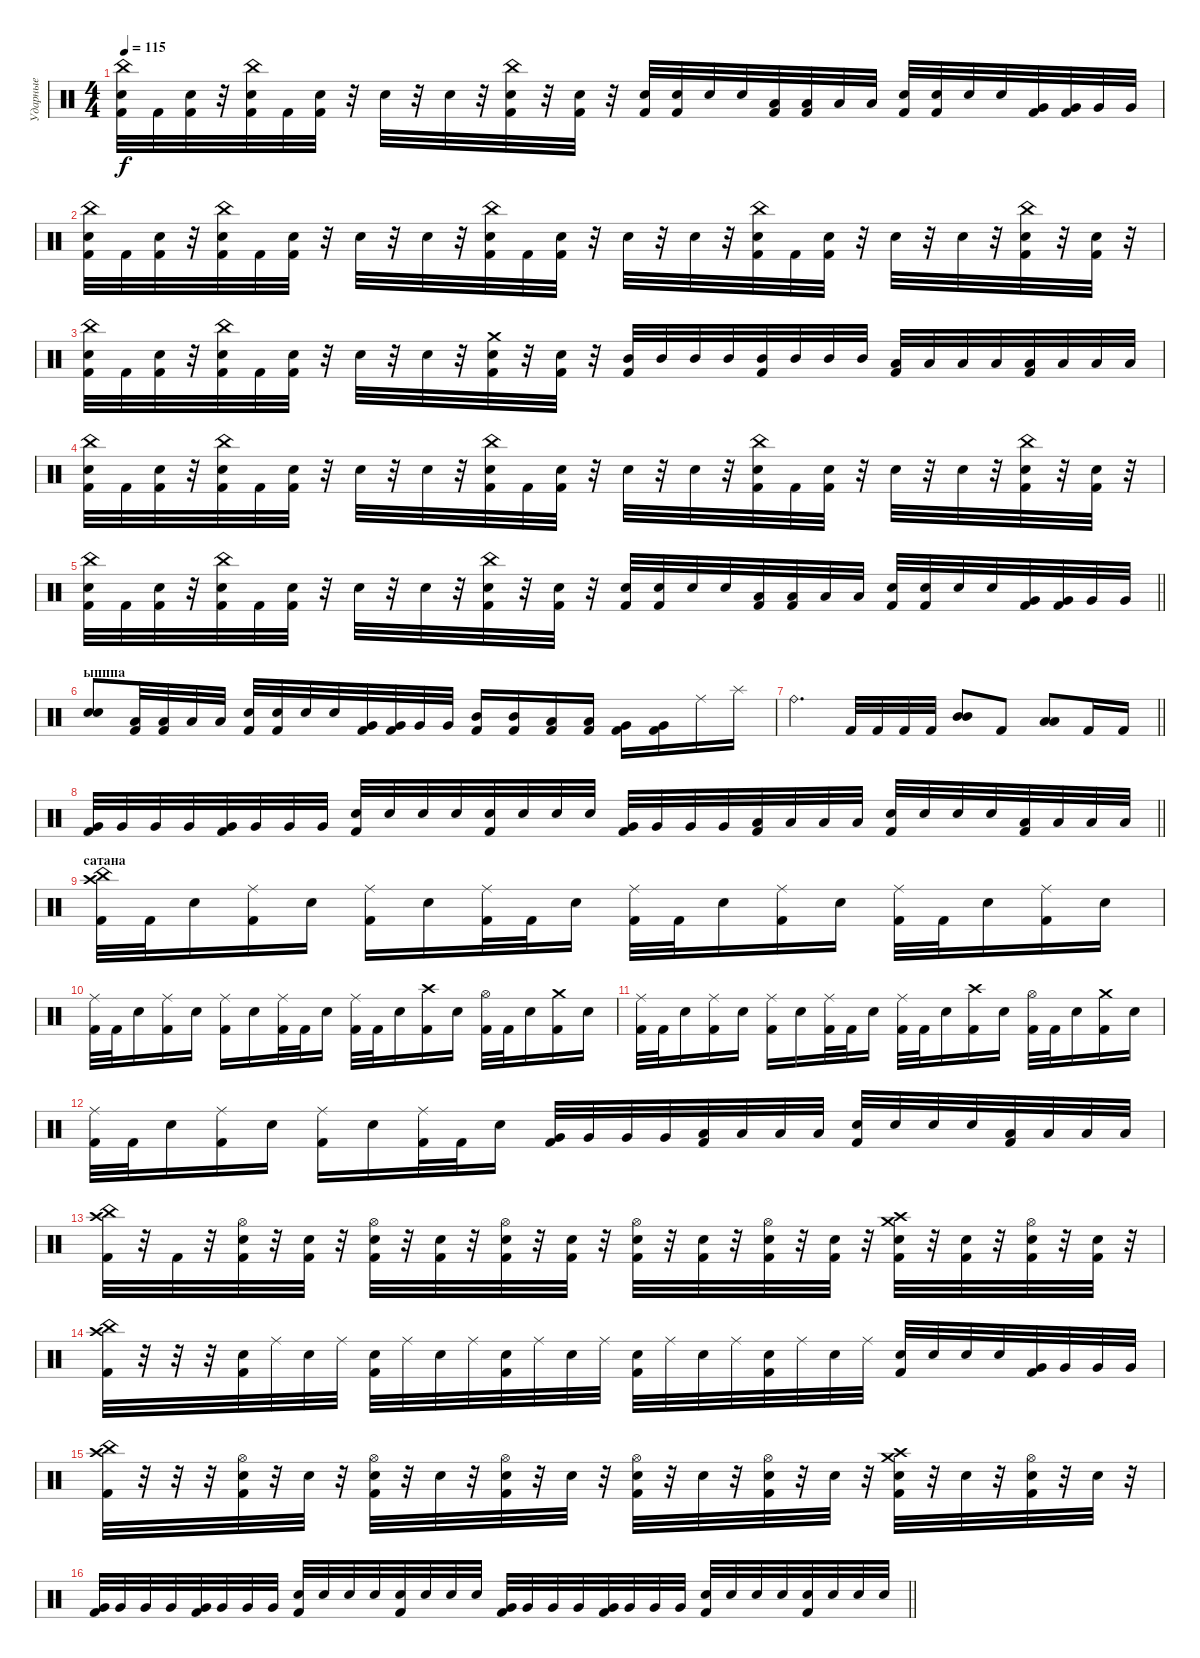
\track ("Ударные" "Ударные") {instrument percussion}
\staff {score}
\articulation defaults
\ts (4 4)
\tempo 115
\clef neutral
\ks c
("China (hit)" "Electric Snare (hit)" "Kick (hit) 2").32{dy f} "Kick (hit) 2".32 ("Electric Snare (hit)" "Kick (hit) 2").32 r.32 ("China (hit)" "Electric Snare (hit)" "Kick (hit) 2").32 "Kick (hit) 2".32 ("Electric Snare (hit)" "Kick (hit) 2").32 r.32 "Electric Snare (hit)".32 r.32 "Electric Snare (hit)".32 r.32 ("China (hit)" "Electric Snare (hit)" "Kick (hit) 2").32 r.32 ("Electric Snare (hit)" "Kick (hit) 2").32 r.32 ("Electric Snare (hit)" "Kick (hit) 2").32 ("Electric Snare (hit)" "Kick (hit) 2").32 "Electric Snare (hit)".32 "Electric Snare (hit)".32 ("Low Tom (hit)" "Kick (hit) 2").32 ("Low Tom (hit)" "Kick (hit) 2").32 "Low Tom (hit)".32 "Low Tom (hit)".32 ("Electric Snare (hit)" "Kick (hit) 2").32 ("Electric Snare (hit)" "Kick (hit) 2").32 "Electric Snare (hit)".32 "Electric Snare (hit)".32 ("Very Low Tom (hit)" "Kick (hit) 2").32 ("Very Low Tom (hit)" "Kick (hit) 2").32 "Very Low Tom (hit)".32 "Very Low Tom (hit)".32 |
("China (hit)" "Electric Snare (hit)" "Kick (hit) 2").32 "Kick (hit) 2".32 ("Electric Snare (hit)" "Kick (hit) 2").32 r.32 ("China (hit)" "Electric Snare (hit)" "Kick (hit) 2").32 "Kick (hit) 2".32 ("Electric Snare (hit)" "Kick (hit) 2").32 r.32 "Electric Snare (hit)".32 r.32 "Electric Snare (hit)".32 r.32 ("China (hit)" "Electric Snare (hit)" "Kick (hit) 2").32 "Kick (hit) 2".32 ("Electric Snare (hit)" "Kick (hit) 2").32 r.32 "Electric Snare (hit)".32 r.32 "Electric Snare (hit)".32 r.32 ("China (hit)" "Electric Snare (hit)" "Kick (hit) 2").32 "Kick (hit) 2".32 ("Electric Snare (hit)" "Kick (hit) 2").32 r.32 "Electric Snare (hit)".32 r.32 "Electric Snare (hit)".32 r.32 ("China (hit)" "Electric Snare (hit)" "Kick (hit) 2").32 r.32 ("Electric Snare (hit)" "Kick (hit) 2").32 r.32 |
("China (hit)" "Electric Snare (hit)" "Kick (hit) 2").32 "Kick (hit) 2".32 ("Electric Snare (hit)" "Kick (hit) 2").32 r.32 ("China (hit)" "Electric Snare (hit)" "Kick (hit) 2").32 "Kick (hit) 2".32 ("Electric Snare (hit)" "Kick (hit) 2").32 r.32 "Electric Snare (hit)".32 r.32 "Electric Snare (hit)".32 r.32 ("Crash medium (hit)" "Electric Snare (hit)" "Kick (hit) 2").32 r.32 ("Electric Snare (hit)" "Kick (hit) 2").32 r.32 ("Mid Tom (hit)" "Kick (hit) 2").32 "Mid Tom (hit)".32 "Mid Tom (hit)".32 "Mid Tom (hit)".32 ("Mid Tom (hit)" "Kick (hit) 2").32 "Mid Tom (hit)".32 "Mid Tom (hit)".32 "Mid Tom (hit)".32 ("Low Tom (hit)" "Kick (hit) 2").32 "Low Tom (hit)".32 "Low Tom (hit)".32 "Low Tom (hit)".32 ("Low Tom (hit)" "Kick (hit) 2").32 "Low Tom (hit)".32 "Low Tom (hit)".32 "Low Tom (hit)".32 |
("China (hit)" "Electric Snare (hit)" "Kick (hit) 2").32 "Kick (hit) 2".32 ("Electric Snare (hit)" "Kick (hit) 2").32 r.32 ("China (hit)" "Electric Snare (hit)" "Kick (hit) 2").32 "Kick (hit) 2".32 ("Electric Snare (hit)" "Kick (hit) 2").32 r.32 "Electric Snare (hit)".32 r.32 "Electric Snare (hit)".32 r.32 ("China (hit)" "Electric Snare (hit)" "Kick (hit) 2").32 "Kick (hit) 2".32 ("Electric Snare (hit)" "Kick (hit) 2").32 r.32 "Electric Snare (hit)".32 r.32 "Electric Snare (hit)".32 r.32 ("China (hit)" "Electric Snare (hit)" "Kick (hit) 2").32 "Kick (hit) 2".32 ("Electric Snare (hit)" "Kick (hit) 2").32 r.32 "Electric Snare (hit)".32 r.32 "Electric Snare (hit)".32 r.32 ("China (hit)" "Electric Snare (hit)" "Kick (hit) 2").32 r.32 ("Electric Snare (hit)" "Kick (hit) 2").32 r.32 |
\barLineRight lightlight
("China (hit)" "Electric Snare (hit)" "Kick (hit) 2").32 "Kick (hit) 2".32 ("Electric Snare (hit)" "Kick (hit) 2").32 r.32 ("China (hit)" "Electric Snare (hit)" "Kick (hit) 2").32 "Kick (hit) 2".32 ("Electric Snare (hit)" "Kick (hit) 2").32 r.32 "Electric Snare (hit)".32 r.32 "Electric Snare (hit)".32 r.32 ("China (hit)" "Electric Snare (hit)" "Kick (hit) 2").32 r.32 ("Electric Snare (hit)" "Kick (hit) 2").32 r.32 ("Electric Snare (hit)" "Kick (hit) 2").32 ("Electric Snare (hit)" "Kick (hit) 2").32 "Electric Snare (hit)".32 "Electric Snare (hit)".32 ("Low Tom (hit)" "Kick (hit) 2").32 ("Low Tom (hit)" "Kick (hit) 2").32 "Low Tom (hit)".32 "Low Tom (hit)".32 ("Electric Snare (hit)" "Kick (hit) 2").32 ("Electric Snare (hit)" "Kick (hit) 2").32 "Electric Snare (hit)".32 "Electric Snare (hit)".32 ("Very Low Tom (hit)" "Kick (hit) 2").32 ("Very Low Tom (hit)" "Kick (hit) 2").32 "Very Low Tom (hit)".32 "Very Low Tom (hit)".32 |
\section ("" "ыпппа")
("Electric Snare (hit)" "Electric Snare (hit)").8 ("Low Tom (hit)" "Kick (hit) 2").32 ("Low Tom (hit)" "Kick (hit) 2").32 "Low Tom (hit)".32 "Low Tom (hit)".32 ("Electric Snare (hit)" "Kick (hit) 2").32 ("Electric Snare (hit)" "Kick (hit) 2").32 "Electric Snare (hit)".32 "Electric Snare (hit)".32 ("Very Low Tom (hit)" "Kick (hit) 2").32 ("Very Low Tom (hit)" "Kick (hit) 2").32 "Very Low Tom (hit)".32 "Very Low Tom (hit)".32 ("Mid Tom (hit)" "Kick (hit) 2").16 ("Mid Tom (hit)" "Kick (hit) 2").16 ("Low Tom (hit)" "Kick (hit) 2").16 ("Low Tom (hit)" "Kick (hit) 2").16 ("Very Low Tom (hit)" "Kick (hit) 2").16 ("Very Low Tom (hit)" "Kick (hit) 2").16 "Ride (middle)".16 "Splash (hit)".16 |
\barLineRight lightlight "Ride (bell)".4{d} "Kick (hit) 2".32 "Kick (hit) 2".32 "Kick (hit) 2".32 "Kick (hit) 2".32
("Mid Tom (hit)" "Mid Tom (hit)").8 "Kick (hit) 2".8 ("Low Tom (hit)" "Low Tom (hit)").8 "Kick (hit) 2".16 "Kick (hit) 2".16 |
\barLineRight lightlight
("Very Low Tom (hit)" "Kick (hit) 2").32 "Very Low Tom (hit)".32 "Very Low Tom (hit)".32 "Very Low Tom (hit)".32 ("Very Low Tom (hit)" "Kick (hit) 2").32 "Very Low Tom (hit)".32 "Very Low Tom (hit)".32 "Very Low Tom (hit)".32 ("Electric Snare (hit)" "Kick (hit) 2").32 "Electric Snare (hit)".32 "Electric Snare (hit)".32 "Electric Snare (hit)".32 ("Electric Snare (hit)" "Kick (hit) 2").32 "Electric Snare (hit)".32 "Electric Snare (hit)".32 "Electric Snare (hit)".32 ("Very Low Tom (hit)" "Kick (hit) 2").32 "Very Low Tom (hit)".32 "Very Low Tom (hit)".32 "Very Low Tom (hit)".32 ("Low Tom (hit)" "Kick (hit) 2").32 "Low Tom (hit)".32 "Low Tom (hit)".32 "Low Tom (hit)".32 ("Electric Snare (hit)" "Kick (hit) 2").32 "Electric Snare (hit)".32 "Electric Snare (hit)".32 "Electric Snare (hit)".32 ("Low Tom (hit)" "Kick (hit) 2").32 "Low Tom (hit)".32 "Low Tom (hit)".32 "Low Tom (hit)".32 |
\section ("" "сатана")
("China (hit)" "Crash high (hit)" "Kick (hit) 2").32 "Kick (hit) 2".32 "Electric Snare (hit)".16 ("Ride (middle)" "Kick (hit) 2").16 "Electric Snare (hit)".16 ("Ride (middle)" "Kick (hit) 2").16 "Electric Snare (hit)".16 ("Ride (middle)" "Kick (hit) 2").32 "Kick (hit) 2".32 "Electric Snare (hit)".16 ("Ride (middle)" "Kick (hit) 2").32 "Kick (hit) 2".32 "Electric Snare (hit)".16 ("Ride (middle)" "Kick (hit) 2").16 "Electric Snare (hit)".16 ("Ride (middle)" "Kick (hit) 2").32 "Kick (hit) 2".32 "Electric Snare (hit)".16 ("Ride (middle)" "Kick (hit) 2").16 "Electric Snare (hit)".16 |
("Ride (middle)" "Kick (hit) 2").32 "Kick (hit) 2".32 "Electric Snare (hit)".16 ("Ride (middle)" "Kick (hit) 2").16 "Electric Snare (hit)".16 ("Ride (middle)" "Kick (hit) 2").16 "Electric Snare (hit)".16 ("Ride (middle)" "Kick (hit) 2").32 "Kick (hit) 2".32 "Electric Snare (hit)".16 ("Ride (middle)" "Kick (hit) 2").32 "Kick (hit) 2".32 "Electric Snare (hit)".16 ("Crash high (hit)" "Kick (hit) 2").16 "Electric Snare (hit)".16 ("Hi-Hat (open)" "Kick (hit) 2").32 "Kick (hit) 2".32 "Electric Snare (hit)".16 ("Crash medium (hit)" "Kick (hit) 2").16 "Electric Snare (hit)".16 |
("Ride (middle)" "Kick (hit) 2").32 "Kick (hit) 2".32 "Electric Snare (hit)".16 ("Ride (middle)" "Kick (hit) 2").16 "Electric Snare (hit)".16 ("Ride (middle)" "Kick (hit) 2").16 "Electric Snare (hit)".16 ("Ride (middle)" "Kick (hit) 2").32 "Kick (hit) 2".32 "Electric Snare (hit)".16 ("Ride (middle)" "Kick (hit) 2").32 "Kick (hit) 2".32 "Electric Snare (hit)".16 ("Crash high (hit)" "Kick (hit) 2").16 "Electric Snare (hit)".16 ("Hi-Hat (open)" "Kick (hit) 2").32 "Kick (hit) 2".32 "Electric Snare (hit)".16 ("Crash medium (hit)" "Kick (hit) 2").16 "Electric Snare (hit)".16 |
("Ride (middle)" "Kick (hit) 2").32 "Kick (hit) 2".32 "Electric Snare (hit)".16 ("Ride (middle)" "Kick (hit) 2").16 "Electric Snare (hit)".16 ("Ride (middle)" "Kick (hit) 2").16 "Electric Snare (hit)".16 ("Ride (middle)" "Kick (hit) 2").32 "Kick (hit) 2".32 "Electric Snare (hit)".16 ("Very Low Tom (hit)" "Kick (hit) 2").32 "Very Low Tom (hit)".32 "Very Low Tom (hit)".32 "Very Low Tom (hit)".32 ("Low Tom (hit)" "Kick (hit) 2").32 "Low Tom (hit)".32 "Low Tom (hit)".32 "Low Tom (hit)".32 ("Electric Snare (hit)" "Kick (hit) 2").32 "Electric Snare (hit)".32 "Electric Snare (hit)".32 "Electric Snare (hit)".32 ("Low Tom (hit)" "Kick (hit) 2").32 "Low Tom (hit)".32 "Low Tom (hit)".32 "Low Tom (hit)".32 |
("China (hit)" "Crash high (hit)" "Kick (hit) 2").32 r.32 "Kick (hit) 2".32 r.32 ("Hi-Hat (open)" "Electric Snare (hit)" "Kick (hit) 2").32 r.32 ("Electric Snare (hit)" "Kick (hit) 2").32 r.32 ("Hi-Hat (open)" "Electric Snare (hit)" "Kick (hit) 2").32 r.32 ("Electric Snare (hit)" "Kick (hit) 2").32 r.32 ("Hi-Hat (open)" "Electric Snare (hit)" "Kick (hit) 2").32 r.32 ("Electric Snare (hit)" "Kick (hit) 2").32 r.32 ("Hi-Hat (open)" "Electric Snare (hit)" "Kick (hit) 2").32 r.32 ("Electric Snare (hit)" "Kick (hit) 2").32 r.32 ("Hi-Hat (open)" "Electric Snare (hit)" "Kick (hit) 2").32 r.32 ("Electric Snare (hit)" "Kick (hit) 2").32 r.32 ("Crash medium (hit)" "Crash high (hit)" "Electric Snare (hit)" "Kick (hit) 2").32 r.32 ("Electric Snare (hit)" "Kick (hit) 2").32 r.32 ("Hi-Hat (open)" "Electric Snare (hit)" "Kick (hit) 2").32 r.32 ("Electric Snare (hit)" "Kick (hit) 2").32 r.32 |
("China (hit)" "Crash high (hit)" "Kick (hit) 2").32 r.32 r.32 r.32 ("Electric Snare (hit)" "Kick (hit) 2").32 "Ride (middle)".32 "Electric Snare (hit)".32 "Ride (middle)".32 ("Electric Snare (hit)" "Kick (hit) 2").32 "Ride (middle)".32 "Electric Snare (hit)".32 "Ride (middle)".32 ("Electric Snare (hit)" "Kick (hit) 2").32 "Ride (middle)".32 "Electric Snare (hit)".32 "Ride (middle)".32 ("Electric Snare (hit)" "Kick (hit) 2").32 "Ride (middle)".32 "Electric Snare (hit)".32 "Ride (middle)".32 ("Electric Snare (hit)" "Kick (hit) 2").32 "Ride (middle)".32 "Electric Snare (hit)".32 "Ride (middle)".32 ("Electric Snare (hit)" "Kick (hit) 2").32 "Electric Snare (hit)".32 "Electric Snare (hit)".32 "Electric Snare (hit)".32 ("Very Low Tom (hit)" "Kick (hit) 2").32 "Very Low Tom (hit)".32 "Very Low Tom (hit)".32 "Very Low Tom (hit)".32 |
("China (hit)" "Crash high (hit)" "Kick (hit) 2").32 r.32 r.32 r.32 ("Hi-Hat (open)" "Electric Snare (hit)" "Kick (hit) 2").32 r.32 "Electric Snare (hit)".32 r.32 ("Hi-Hat (open)" "Electric Snare (hit)" "Kick (hit) 2").32 r.32 "Electric Snare (hit)".32 r.32 ("Hi-Hat (open)" "Electric Snare (hit)" "Kick (hit) 2").32 r.32 "Electric Snare (hit)".32 r.32 ("Hi-Hat (open)" "Electric Snare (hit)" "Kick (hit) 2").32 r.32 "Electric Snare (hit)".32 r.32 ("Hi-Hat (open)" "Electric Snare (hit)" "Kick (hit) 2").32 r.32 "Electric Snare (hit)".32 r.32 ("Crash medium (hit)" "Crash high (hit)" "Electric Snare (hit)" "Kick (hit) 2").32 r.32 "Electric Snare (hit)".32 r.32 ("Hi-Hat (open)" "Electric Snare (hit)" "Kick (hit) 2").32 r.32 "Electric Snare (hit)".32 r.32 |
\barLineRight lightlight
("Very Low Tom (hit)" "Kick (hit) 2").32 "Very Low Tom (hit)".32 "Very Low Tom (hit)".32 "Very Low Tom (hit)".32 ("Very Low Tom (hit)" "Kick (hit) 2").32 "Very Low Tom (hit)".32 "Very Low Tom (hit)".32 "Very Low Tom (hit)".32 ("Electric Snare (hit)" "Kick (hit) 2").32 "Electric Snare (hit)".32 "Electric Snare (hit)".32 "Electric Snare (hit)".32 ("Electric Snare (hit)" "Kick (hit) 2").32 "Electric Snare (hit)".32 "Electric Snare (hit)".32 "Electric Snare (hit)".32 ("Very Low Tom (hit)" "Kick (hit) 2").32 "Very Low Tom (hit)".32 "Very Low Tom (hit)".32 "Very Low Tom (hit)".32 ("Very Low Tom (hit)" "Kick (hit) 2").32 "Very Low Tom (hit)".32 "Very Low Tom (hit)".32 "Very Low Tom (hit)".32 ("Electric Snare (hit)" "Kick (hit) 2").32 "Electric Snare (hit)".32 "Electric Snare (hit)".32 "Electric Snare (hit)".32 ("Electric Snare (hit)" "Kick (hit) 2").32 "Electric Snare (hit)".32 "Electric Snare (hit)".32 "Electric Snare (hit)".32
